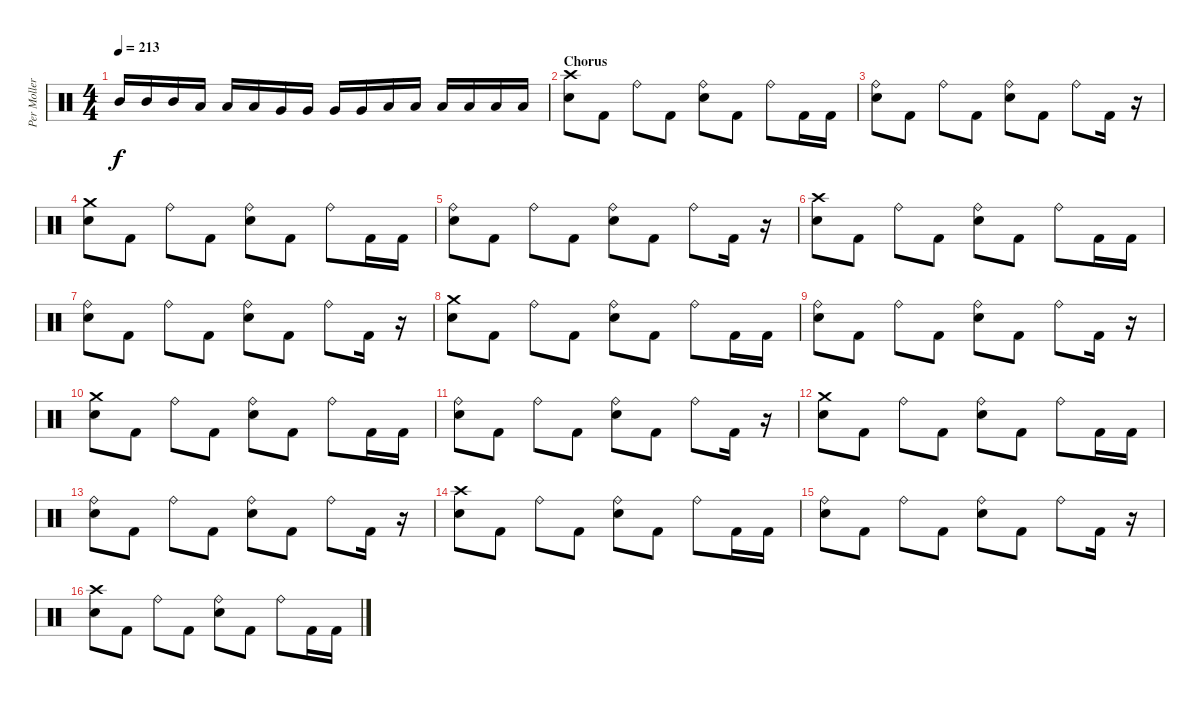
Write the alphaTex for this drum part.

\track ("Per Moller Jensen" "Per Moller") {instrument percussion}
\staff {score}
\articulation defaults
\ts (4 4)
\tempo 213
\clef neutral
\ks c "Mid Tom (hit)".16{dy f} "Mid Tom (hit)".16 "Mid Tom (hit)".16 "Low Tom (hit)".16 "Low Tom (hit)".16 "Low Tom (hit)".16 "Very Low Tom (hit)".16 "Very Low Tom (hit)".16 "Very Low Tom (hit)".16 "Very Low Tom (hit)".16 "Low Floor Tom (hit)".16 "Low Floor Tom (hit)".16 "Low Floor Tom (hit)".16 "Low Floor Tom (hit)".16 "Low Floor Tom (hit)".16 "Low Floor Tom (hit)".16
|
\section ("" "Chorus")
("Crash high (hit)" "Snare (hit) 2").8 "Kick (hit) 2".8 "Ride (bell)".8 "Kick (hit) 2".8 ("Ride (bell)" "Snare (hit) 2").8 "Kick (hit) 2".8 "Ride (bell)".8 "Kick (hit) 2".16 "Kick (hit) 2".16 |
("Ride (bell)" "Snare (hit) 2").8 "Kick (hit) 2".8 "Ride (bell)".8 "Kick (hit) 2".8 ("Ride (bell)" "Snare (hit) 2").8 "Kick (hit) 2".8 "Ride (bell)".8 "Kick (hit) 2".16 r.16 |
("Crash medium (hit)" "Snare (hit) 2").8 "Kick (hit) 2".8 "Ride (bell)".8 "Kick (hit) 2".8 ("Ride (bell)" "Snare (hit) 2").8 "Kick (hit) 2".8 "Ride (bell)".8 "Kick (hit) 2".16 "Kick (hit) 2".16 |
("Ride (bell)" "Snare (hit) 2").8 "Kick (hit) 2".8 "Ride (bell)".8 "Kick (hit) 2".8 ("Ride (bell)" "Snare (hit) 2").8 "Kick (hit) 2".8 "Ride (bell)".8 "Kick (hit) 2".16 r.16 |
("Crash high (hit)" "Snare (hit) 2").8 "Kick (hit) 2".8 "Ride (bell)".8 "Kick (hit) 2".8 ("Ride (bell)" "Snare (hit) 2").8 "Kick (hit) 2".8 "Ride (bell)".8 "Kick (hit) 2".16 "Kick (hit) 2".16 |
("Ride (bell)" "Snare (hit) 2").8 "Kick (hit) 2".8 "Ride (bell)".8 "Kick (hit) 2".8 ("Ride (bell)" "Snare (hit) 2").8 "Kick (hit) 2".8 "Ride (bell)".8 "Kick (hit) 2".16 r.16 |
("Crash medium (hit)" "Snare (hit) 2").8 "Kick (hit) 2".8 "Ride (bell)".8 "Kick (hit) 2".8 ("Ride (bell)" "Snare (hit) 2").8 "Kick (hit) 2".8 "Ride (bell)".8 "Kick (hit) 2".16 "Kick (hit) 2".16 |
("Ride (bell)" "Snare (hit) 2").8 "Kick (hit) 2".8 "Ride (bell)".8 "Kick (hit) 2".8 ("Ride (bell)" "Snare (hit) 2").8 "Kick (hit) 2".8 "Ride (bell)".8 "Kick (hit) 2".16 r.16 |
("Crash medium (hit)" "Snare (hit) 2").8 "Kick (hit) 2".8 "Ride (bell)".8 "Kick (hit) 2".8 ("Ride (bell)" "Snare (hit) 2").8 "Kick (hit) 2".8 "Ride (bell)".8 "Kick (hit) 2".16 "Kick (hit) 2".16 |
("Ride (bell)" "Snare (hit) 2").8 "Kick (hit) 2".8 "Ride (bell)".8 "Kick (hit) 2".8 ("Ride (bell)" "Snare (hit) 2").8 "Kick (hit) 2".8 "Ride (bell)".8 "Kick (hit) 2".16 r.16 |
("Crash medium (hit)" "Snare (hit) 2").8 "Kick (hit) 2".8 "Ride (bell)".8 "Kick (hit) 2".8 ("Ride (bell)" "Snare (hit) 2").8 "Kick (hit) 2".8 "Ride (bell)".8 "Kick (hit) 2".16 "Kick (hit) 2".16 |
("Ride (bell)" "Snare (hit) 2").8 "Kick (hit) 2".8 "Ride (bell)".8 "Kick (hit) 2".8 ("Ride (bell)" "Snare (hit) 2").8 "Kick (hit) 2".8 "Ride (bell)".8 "Kick (hit) 2".16 r.16 |
("Crash high (hit)" "Snare (hit) 2").8 "Kick (hit) 2".8 "Ride (bell)".8 "Kick (hit) 2".8 ("Ride (bell)" "Snare (hit) 2").8 "Kick (hit) 2".8 "Ride (bell)".8 "Kick (hit) 2".16 "Kick (hit) 2".16 |
("Ride (bell)" "Snare (hit) 2").8 "Kick (hit) 2".8 "Ride (bell)".8 "Kick (hit) 2".8 ("Ride (bell)" "Snare (hit) 2").8 "Kick (hit) 2".8 "Ride (bell)".8 "Kick (hit) 2".16 r.16 |
("Crash high (hit)" "Snare (hit) 2").8 "Kick (hit) 2".8 "Ride (bell)".8 "Kick (hit) 2".8 ("Ride (bell)" "Snare (hit) 2").8 "Kick (hit) 2".8 "Ride (bell)".8 "Kick (hit) 2".16 "Kick (hit) 2".16
